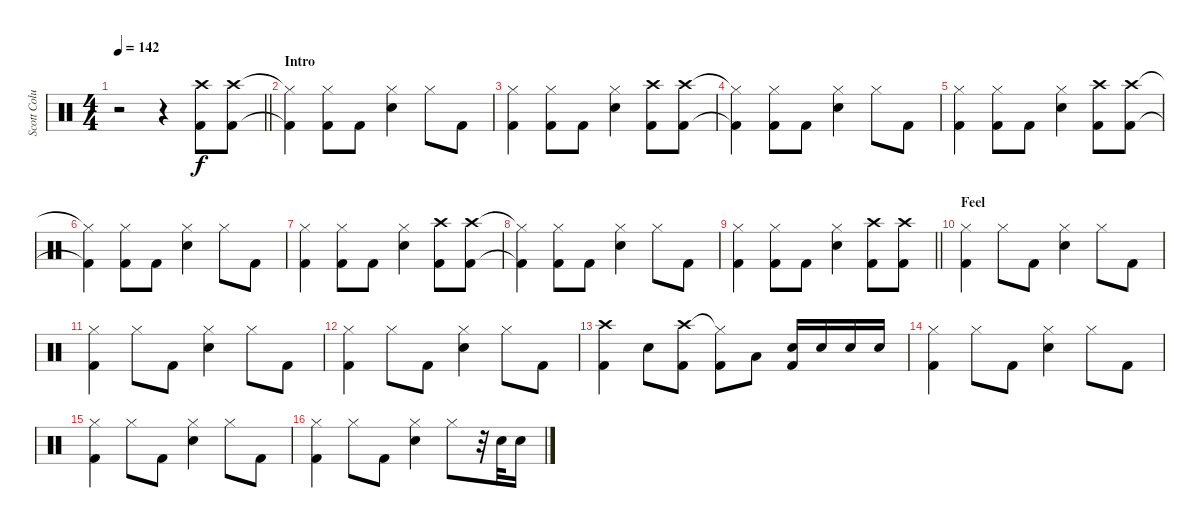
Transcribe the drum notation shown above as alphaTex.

\track ("Scott Columbus" "Scott Colu") {instrument percussion}
\staff {score}
\articulation defaults
\ts (4 4)
\tempo 142
\clef neutral
\barLineRight lightlight
\ks c
r.2{dy f} r.4 ("Crash high (hit)" "Kick (hit) 2").8 ("Crash high (hit)" "Kick (hit) 2").8 |
\section ("" "Intro")
("Hi-Hat (closed)"{t} "Kick (hit) 2"{t}).4 ("Hi-Hat (closed)" "Kick (hit) 2").8 "Kick (hit) 2".8 ("Hi-Hat (closed)" "Snare (hit) 2").4 "Hi-Hat (closed)".8 "Kick (hit) 2".8 |
("Hi-Hat (closed)" "Kick (hit) 2").4 ("Hi-Hat (closed)" "Kick (hit) 2").8 "Kick (hit) 2".8 ("Hi-Hat (closed)" "Snare (hit) 2").4 ("Crash high (hit)" "Kick (hit) 2").8 ("Crash high (hit)" "Kick (hit) 2").8 |
("Hi-Hat (closed)"{t} "Kick (hit) 2"{t}).4 ("Hi-Hat (closed)" "Kick (hit) 2").8 "Kick (hit) 2".8 ("Hi-Hat (closed)" "Snare (hit) 2").4 "Hi-Hat (closed)".8 "Kick (hit) 2".8 |
("Hi-Hat (closed)" "Kick (hit) 2").4 ("Hi-Hat (closed)" "Kick (hit) 2").8 "Kick (hit) 2".8 ("Hi-Hat (closed)" "Snare (hit) 2").4 ("Crash high (hit)" "Kick (hit) 2").8 ("Crash high (hit)" "Kick (hit) 2").8 |
("Hi-Hat (closed)"{t} "Kick (hit) 2"{t}).4 ("Hi-Hat (closed)" "Kick (hit) 2").8 "Kick (hit) 2".8 ("Hi-Hat (closed)" "Snare (hit) 2").4 "Hi-Hat (closed)".8 "Kick (hit) 2".8 |
("Hi-Hat (closed)" "Kick (hit) 2").4 ("Hi-Hat (closed)" "Kick (hit) 2").8 "Kick (hit) 2".8 ("Hi-Hat (closed)" "Snare (hit) 2").4 ("Crash high (hit)" "Kick (hit) 2").8 ("Crash high (hit)" "Kick (hit) 2").8 |
("Hi-Hat (closed)"{t} "Kick (hit) 2"{t}).4 ("Hi-Hat (closed)" "Kick (hit) 2").8 "Kick (hit) 2".8 ("Hi-Hat (closed)" "Snare (hit) 2").4 "Hi-Hat (closed)".8 "Kick (hit) 2".8 |
\barLineRight lightlight
("Hi-Hat (closed)" "Kick (hit) 2").4 ("Hi-Hat (closed)" "Kick (hit) 2").8 "Kick (hit) 2".8 ("Hi-Hat (closed)" "Snare (hit) 2").4 ("Crash high (hit)" "Kick (hit) 2").8 ("Crash high (hit)" "Kick (hit) 2").8 |
\section ("" "Feel")
("Hi-Hat (closed)" "Kick (hit) 2").4 "Hi-Hat (closed)".8 "Kick (hit) 2".8 ("Hi-Hat (closed)" "Snare (hit) 2").4 "Hi-Hat (closed)".8 "Kick (hit) 2".8 |
("Hi-Hat (closed)" "Kick (hit) 2").4 "Hi-Hat (closed)".8 "Kick (hit) 2".8 ("Hi-Hat (closed)" "Snare (hit) 2").4 "Hi-Hat (closed)".8 "Kick (hit) 2".8 |
("Hi-Hat (closed)" "Kick (hit) 2").4 "Hi-Hat (closed)".8 "Kick (hit) 2".8 ("Hi-Hat (closed)" "Snare (hit) 2").4 "Hi-Hat (closed)".8 "Kick (hit) 2".8 |
("Crash high (hit)" "Kick (hit) 2").4 "Snare (hit) 2".8 ("Crash high (hit)" "Kick (hit) 2").8 ("Hi-Hat (closed)"{t} "Kick (hit) 2").8 "Low Tom (hit)".8 ("Snare (hit) 2" "Kick (hit) 2").16 "Snare (hit) 2".16 "Snare (hit) 2".16 "Snare (hit) 2".16 |
("Hi-Hat (closed)" "Kick (hit) 2").4 "Hi-Hat (closed)".8 "Kick (hit) 2".8 ("Hi-Hat (closed)" "Snare (hit) 2").4 "Hi-Hat (closed)".8 "Kick (hit) 2".8 |
("Hi-Hat (closed)" "Kick (hit) 2").4 "Hi-Hat (closed)".8 "Kick (hit) 2".8 ("Hi-Hat (closed)" "Snare (hit) 2").4 "Hi-Hat (closed)".8 "Kick (hit) 2".8 |
("Hi-Hat (closed)" "Kick (hit) 2").4 "Hi-Hat (closed)".8 "Kick (hit) 2".8 ("Hi-Hat (closed)" "Snare (hit) 2").4 "Hi-Hat (closed)".8 r.32 "Snare (hit) 2".32 "Snare (hit) 2".16
